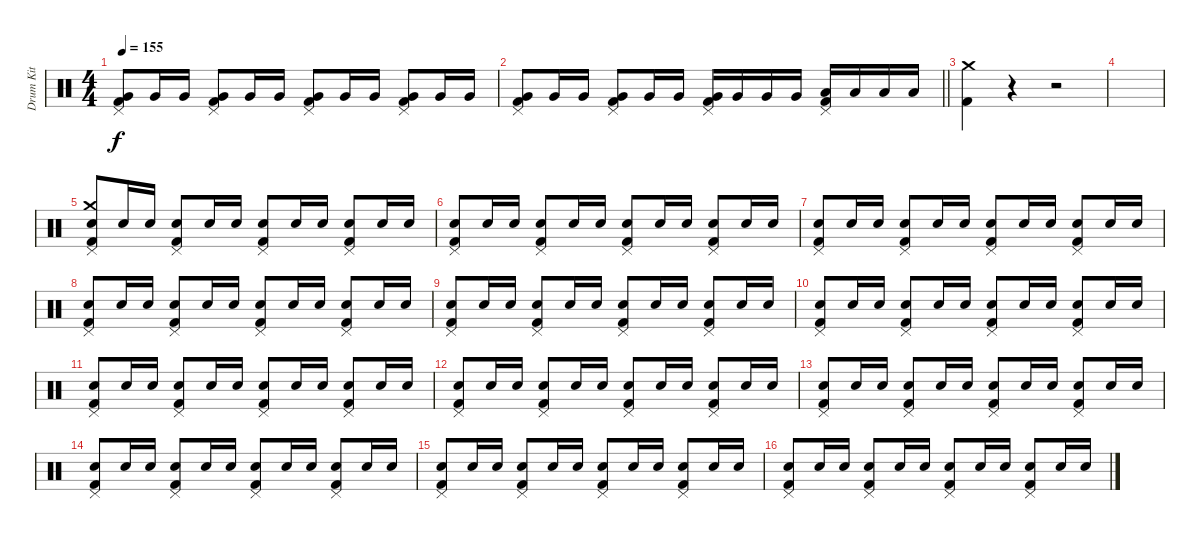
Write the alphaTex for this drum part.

\track ("Drum Kit" "Drum Kit") {instrument percussion}
\staff {score}
\articulation defaults
\ts (4 4)
\tempo 155
\clef neutral
\ks c
("Pedal Hi-Hat (hit)" "Very Low Tom (hit)" "Kick (hit) 2").8{dy f} "Very Low Tom (hit)".16 "Very Low Tom (hit)".16 ("Pedal Hi-Hat (hit)" "Very Low Tom (hit)" "Kick (hit) 2").8 "Very Low Tom (hit)".16 "Very Low Tom (hit)".16 ("Pedal Hi-Hat (hit)" "Very Low Tom (hit)" "Kick (hit) 2").8 "Very Low Tom (hit)".16 "Very Low Tom (hit)".16 ("Pedal Hi-Hat (hit)" "Very Low Tom (hit)" "Kick (hit) 2").8 "Very Low Tom (hit)".16 "Very Low Tom (hit)".16 |
\barLineRight lightlight
("Pedal Hi-Hat (hit)" "Very Low Tom (hit)" "Kick (hit) 2").8 "Very Low Tom (hit)".16 "Very Low Tom (hit)".16 ("Pedal Hi-Hat (hit)" "Very Low Tom (hit)" "Kick (hit) 2").8 "Very Low Tom (hit)".16 "Very Low Tom (hit)".16 ("Pedal Hi-Hat (hit)" "Very Low Tom (hit)" "Kick (hit) 2").16 "Very Low Tom (hit)".16 "Very Low Tom (hit)".16 "Very Low Tom (hit)".16 ("Pedal Hi-Hat (hit)" "Low Floor Tom (hit)" "Kick (hit) 2").16 "Low Floor Tom (hit)".16 "Low Floor Tom (hit)".16 "Low Floor Tom (hit)".16 |
("Crash medium (hit)" "Kick (hit) 2").4 r.4 r.2 |
|
("Crash medium (hit)" "Pedal Hi-Hat (hit)" "Snare (hit) 2" "Kick (hit) 2").8{volume 9} "Snare (hit) 2".16 "Snare (hit) 2".16 ("Pedal Hi-Hat (hit)" "Snare (hit) 2" "Kick (hit) 2").8 "Snare (hit) 2".16 "Snare (hit) 2".16 ("Pedal Hi-Hat (hit)" "Snare (hit) 2" "Kick (hit) 2").8 "Snare (hit) 2".16 "Snare (hit) 2".16 ("Pedal Hi-Hat (hit)" "Snare (hit) 2" "Kick (hit) 2").8 "Snare (hit) 2".16 "Snare (hit) 2".16 |
("Pedal Hi-Hat (hit)" "Snare (hit) 2" "Kick (hit) 2").8 "Snare (hit) 2".16 "Snare (hit) 2".16 ("Pedal Hi-Hat (hit)" "Snare (hit) 2" "Kick (hit) 2").8 "Snare (hit) 2".16 "Snare (hit) 2".16 ("Pedal Hi-Hat (hit)" "Snare (hit) 2" "Kick (hit) 2").8 "Snare (hit) 2".16 "Snare (hit) 2".16 ("Pedal Hi-Hat (hit)" "Snare (hit) 2" "Kick (hit) 2").8 "Snare (hit) 2".16 "Snare (hit) 2".16 |
("Pedal Hi-Hat (hit)" "Snare (hit) 2" "Kick (hit) 2").8 "Snare (hit) 2".16 "Snare (hit) 2".16 ("Pedal Hi-Hat (hit)" "Snare (hit) 2" "Kick (hit) 2").8 "Snare (hit) 2".16 "Snare (hit) 2".16 ("Pedal Hi-Hat (hit)" "Snare (hit) 2" "Kick (hit) 2").8 "Snare (hit) 2".16 "Snare (hit) 2".16 ("Pedal Hi-Hat (hit)" "Snare (hit) 2" "Kick (hit) 2").8 "Snare (hit) 2".16 "Snare (hit) 2".16 |
("Pedal Hi-Hat (hit)" "Snare (hit) 2" "Kick (hit) 2").8 "Snare (hit) 2".16 "Snare (hit) 2".16 ("Pedal Hi-Hat (hit)" "Snare (hit) 2" "Kick (hit) 2").8 "Snare (hit) 2".16 "Snare (hit) 2".16 ("Pedal Hi-Hat (hit)" "Snare (hit) 2" "Kick (hit) 2").8 "Snare (hit) 2".16 "Snare (hit) 2".16 ("Pedal Hi-Hat (hit)" "Snare (hit) 2" "Kick (hit) 2").8 "Snare (hit) 2".16 "Snare (hit) 2".16 |
("Pedal Hi-Hat (hit)" "Snare (hit) 2" "Kick (hit) 2").8 "Snare (hit) 2".16 "Snare (hit) 2".16 ("Pedal Hi-Hat (hit)" "Snare (hit) 2" "Kick (hit) 2").8 "Snare (hit) 2".16 "Snare (hit) 2".16 ("Pedal Hi-Hat (hit)" "Snare (hit) 2" "Kick (hit) 2").8 "Snare (hit) 2".16 "Snare (hit) 2".16 ("Pedal Hi-Hat (hit)" "Snare (hit) 2" "Kick (hit) 2").8 "Snare (hit) 2".16 "Snare (hit) 2".16 |
("Pedal Hi-Hat (hit)" "Snare (hit) 2" "Kick (hit) 2").8 "Snare (hit) 2".16 "Snare (hit) 2".16 ("Pedal Hi-Hat (hit)" "Snare (hit) 2" "Kick (hit) 2").8 "Snare (hit) 2".16 "Snare (hit) 2".16 ("Pedal Hi-Hat (hit)" "Snare (hit) 2" "Kick (hit) 2").8 "Snare (hit) 2".16 "Snare (hit) 2".16 ("Pedal Hi-Hat (hit)" "Snare (hit) 2" "Kick (hit) 2").8 "Snare (hit) 2".16 "Snare (hit) 2".16 |
("Pedal Hi-Hat (hit)" "Snare (hit) 2" "Kick (hit) 2").8 "Snare (hit) 2".16 "Snare (hit) 2".16 ("Pedal Hi-Hat (hit)" "Snare (hit) 2" "Kick (hit) 2").8 "Snare (hit) 2".16 "Snare (hit) 2".16 ("Pedal Hi-Hat (hit)" "Snare (hit) 2" "Kick (hit) 2").8 "Snare (hit) 2".16 "Snare (hit) 2".16 ("Pedal Hi-Hat (hit)" "Snare (hit) 2" "Kick (hit) 2").8 "Snare (hit) 2".16 "Snare (hit) 2".16 |
("Pedal Hi-Hat (hit)" "Snare (hit) 2" "Kick (hit) 2").8 "Snare (hit) 2".16 "Snare (hit) 2".16 ("Pedal Hi-Hat (hit)" "Snare (hit) 2" "Kick (hit) 2").8 "Snare (hit) 2".16 "Snare (hit) 2".16 ("Pedal Hi-Hat (hit)" "Snare (hit) 2" "Kick (hit) 2").8 "Snare (hit) 2".16 "Snare (hit) 2".16 ("Pedal Hi-Hat (hit)" "Snare (hit) 2" "Kick (hit) 2").8 "Snare (hit) 2".16 "Snare (hit) 2".16 |
("Pedal Hi-Hat (hit)" "Snare (hit) 2" "Kick (hit) 2").8 "Snare (hit) 2".16 "Snare (hit) 2".16 ("Pedal Hi-Hat (hit)" "Snare (hit) 2" "Kick (hit) 2").8 "Snare (hit) 2".16 "Snare (hit) 2".16 ("Pedal Hi-Hat (hit)" "Snare (hit) 2" "Kick (hit) 2").8 "Snare (hit) 2".16 "Snare (hit) 2".16 ("Pedal Hi-Hat (hit)" "Snare (hit) 2" "Kick (hit) 2").8 "Snare (hit) 2".16 "Snare (hit) 2".16 |
("Pedal Hi-Hat (hit)" "Snare (hit) 2" "Kick (hit) 2").8 "Snare (hit) 2".16 "Snare (hit) 2".16 ("Pedal Hi-Hat (hit)" "Snare (hit) 2" "Kick (hit) 2").8 "Snare (hit) 2".16 "Snare (hit) 2".16 ("Pedal Hi-Hat (hit)" "Snare (hit) 2" "Kick (hit) 2").8 "Snare (hit) 2".16 "Snare (hit) 2".16 ("Pedal Hi-Hat (hit)" "Snare (hit) 2" "Kick (hit) 2").8 "Snare (hit) 2".16 "Snare (hit) 2".16 |
("Pedal Hi-Hat (hit)" "Snare (hit) 2" "Kick (hit) 2").8 "Snare (hit) 2".16 "Snare (hit) 2".16 ("Pedal Hi-Hat (hit)" "Snare (hit) 2" "Kick (hit) 2").8 "Snare (hit) 2".16 "Snare (hit) 2".16 ("Pedal Hi-Hat (hit)" "Snare (hit) 2" "Kick (hit) 2").8 "Snare (hit) 2".16 "Snare (hit) 2".16 ("Pedal Hi-Hat (hit)" "Snare (hit) 2" "Kick (hit) 2").8 "Snare (hit) 2".16 "Snare (hit) 2".16 |
("Pedal Hi-Hat (hit)" "Snare (hit) 2" "Kick (hit) 2").8 "Snare (hit) 2".16 "Snare (hit) 2".16 ("Pedal Hi-Hat (hit)" "Snare (hit) 2" "Kick (hit) 2").8 "Snare (hit) 2".16 "Snare (hit) 2".16 ("Pedal Hi-Hat (hit)" "Snare (hit) 2" "Kick (hit) 2").8 "Snare (hit) 2".16 "Snare (hit) 2".16 ("Pedal Hi-Hat (hit)" "Snare (hit) 2" "Kick (hit) 2").8 "Snare (hit) 2".16 "Snare (hit) 2".16
